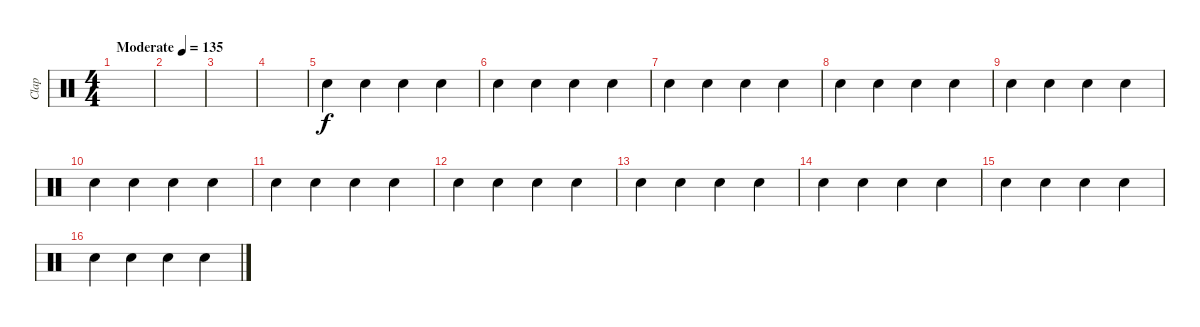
\track ("Clap" "Clap") {instrument percussion}
\staff {score}
\articulation defaults
\ts (4 4)
\tempo (135 "Moderate")
\clef neutral
\ks c
|
|
|
|
"Hand Clap (hit)".4 "Hand Clap (hit)".4 "Hand Clap (hit)".4 "Hand Clap (hit)".4 |
"Hand Clap (hit)".4 "Hand Clap (hit)".4 "Hand Clap (hit)".4 "Hand Clap (hit)".4 |
"Hand Clap (hit)".4 "Hand Clap (hit)".4 "Hand Clap (hit)".4 "Hand Clap (hit)".4 |
"Hand Clap (hit)".4 "Hand Clap (hit)".4 "Hand Clap (hit)".4 "Hand Clap (hit)".4 |
"Hand Clap (hit)".4 "Hand Clap (hit)".4 "Hand Clap (hit)".4 "Hand Clap (hit)".4 |
"Hand Clap (hit)".4 "Hand Clap (hit)".4 "Hand Clap (hit)".4 "Hand Clap (hit)".4 |
"Hand Clap (hit)".4 "Hand Clap (hit)".4 "Hand Clap (hit)".4 "Hand Clap (hit)".4 |
"Hand Clap (hit)".4 "Hand Clap (hit)".4 "Hand Clap (hit)".4 "Hand Clap (hit)".4 |
"Hand Clap (hit)".4 "Hand Clap (hit)".4 "Hand Clap (hit)".4 "Hand Clap (hit)".4 |
"Hand Clap (hit)".4 "Hand Clap (hit)".4 "Hand Clap (hit)".4 "Hand Clap (hit)".4 |
"Hand Clap (hit)".4 "Hand Clap (hit)".4 "Hand Clap (hit)".4 "Hand Clap (hit)".4 |
"Hand Clap (hit)".4 "Hand Clap (hit)".4 "Hand Clap (hit)".4 "Hand Clap (hit)".4
